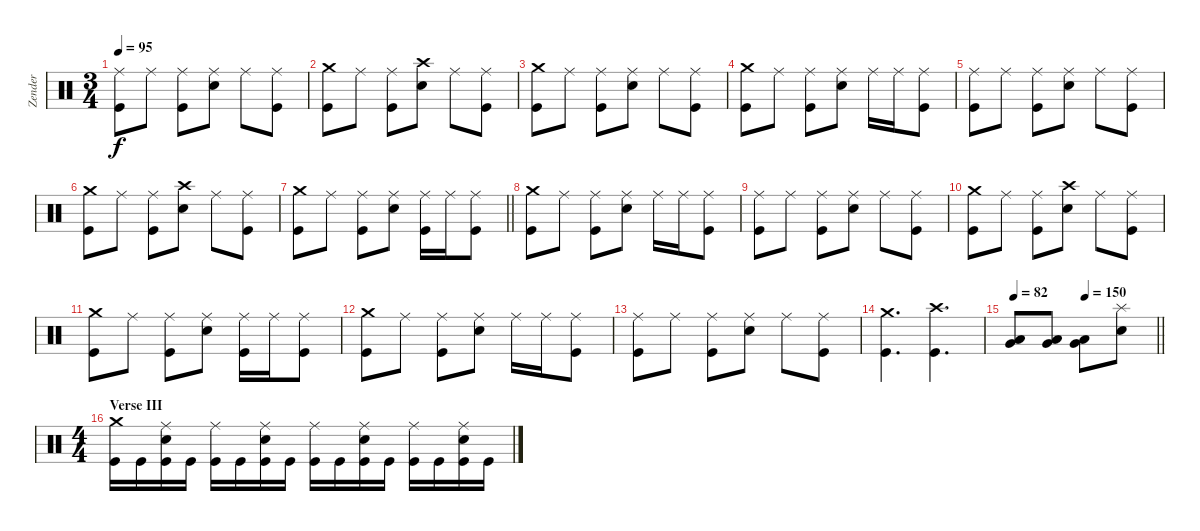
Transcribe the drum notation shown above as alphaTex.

\track ("Zender" "Zender") {instrument percussion}
\staff {score}
\articulation defaults
\ts (3 4)
\tempo 95
\clef neutral
\ks c
("Ride (middle)" "Kick (hit)").8{dy f} "Ride (middle)".8 ("Ride (middle)" "Kick (hit)").8 ("Ride (middle)" "Snare (hit) 2").8 "Ride (middle)".8 ("Ride (middle)" "Kick (hit)").8 |
("Crash medium (hit)" "Kick (hit)").8 "Ride (middle)".8 ("Ride (middle)" "Kick (hit)").8 ("Crash high (hit)" "Snare (hit) 2").8 "Ride (middle)".8 ("Ride (middle)" "Kick (hit)").8 |
("Crash medium (hit)" "Kick (hit)").8 "Ride (middle)".8 ("Ride (middle)" "Kick (hit)").8 ("Ride (middle)" "Snare (hit) 2").8 "Ride (middle)".8 ("Ride (middle)" "Kick (hit)").8 |
("Crash medium (hit)" "Kick (hit)").8 "Ride (middle)".8 ("Ride (middle)" "Kick (hit)").8 ("Ride (middle)" "Snare (hit) 2").8 "Ride (middle)".16 "Ride (middle)".16 ("Ride (middle)" "Kick (hit)").8 |
("Ride (middle)" "Kick (hit)").8 "Ride (middle)".8 ("Ride (middle)" "Kick (hit)").8 ("Ride (middle)" "Snare (hit) 2").8 "Ride (middle)".8 ("Ride (middle)" "Kick (hit)").8 |
("Crash medium (hit)" "Kick (hit)").8 "Ride (middle)".8 ("Ride (middle)" "Kick (hit)").8 ("Crash high (hit)" "Snare (hit) 2").8 "Ride (middle)".8 ("Ride (middle)" "Kick (hit)").8 |
\barLineRight lightlight
("Crash medium (hit)" "Kick (hit)").8 "Ride (middle)".8 ("Ride (middle)" "Kick (hit)").8 ("Ride (middle)" "Snare (hit) 2").8 ("Ride (middle)" "Kick (hit)").16 "Ride (middle)".16 ("Ride (middle)" "Kick (hit)").8 |
("Crash medium (hit)" "Kick (hit)").8 "Ride (middle)".8 ("Ride (middle)" "Kick (hit)").8 ("Ride (middle)" "Snare (hit) 2").8 "Ride (middle)".16 "Ride (middle)".16 ("Ride (middle)" "Kick (hit)").8 |
("Ride (middle)" "Kick (hit)").8 "Ride (middle)".8 ("Ride (middle)" "Kick (hit)").8 ("Ride (middle)" "Snare (hit) 2").8 "Ride (middle)".8 ("Ride (middle)" "Kick (hit)").8 |
("Crash medium (hit)" "Kick (hit)").8 "Ride (middle)".8 ("Ride (middle)" "Kick (hit)").8 ("Crash high (hit)" "Snare (hit) 2").8 "Ride (middle)".8 ("Ride (middle)" "Kick (hit)").8 |
("Crash medium (hit)" "Kick (hit)").8 "Ride (middle)".8 ("Ride (middle)" "Kick (hit)").8 ("Ride (middle)" "Snare (hit) 2").8 ("Ride (middle)" "Kick (hit)").16 "Ride (middle)".16 ("Ride (middle)" "Kick (hit)").8 |
("Crash medium (hit)" "Kick (hit)").8 "Ride (middle)".8 ("Ride (middle)" "Kick (hit)").8 ("Ride (middle)" "Snare (hit) 2").8 "Ride (middle)".16 "Ride (middle)".16 ("Ride (middle)" "Kick (hit)").8 |
("Ride (middle)" "Kick (hit)").8 "Ride (middle)".8 ("Ride (middle)" "Kick (hit)").8 ("Ride (middle)" "Snare (hit) 2").8 "Ride (middle)".8 ("Ride (middle)" "Kick (hit)").8 |
("Crash medium (hit)" "Kick (hit)").4{d} ("Crash high (hit)" "Kick (hit)").4{d} |
\tempo 82
\tempo (150 0.5)
\barLineRight lightlight
("Very Low Tom (hit)" "Low Floor Tom (hit)").8 ("Very Low Tom (hit)" "Low Floor Tom (hit)").8 ("Very Low Tom (hit)" "Low Floor Tom (hit)").8 ("Splash (hit)" "Snare (hit) 2").8 |
\ts (4 4)
\section ("" "Verse III")
("Crash medium (hit)" "Kick (hit)").16 "Kick (hit)".16 ("Ride (middle)" "Snare (hit) 2" "Kick (hit)").16 "Kick (hit)".16 ("Ride (middle)" "Kick (hit)").16 "Kick (hit)".16 ("Ride (middle)" "Snare (hit) 2" "Kick (hit)").16 "Kick (hit)".16 ("Ride (middle)" "Kick (hit)").16 "Kick (hit)".16 ("Ride (middle)" "Snare (hit) 2" "Kick (hit)").16 "Kick (hit)".16 ("Ride (middle)" "Kick (hit)").16 "Kick (hit)".16 ("Ride (middle)" "Snare (hit) 2" "Kick (hit)").16 "Kick (hit)".16
